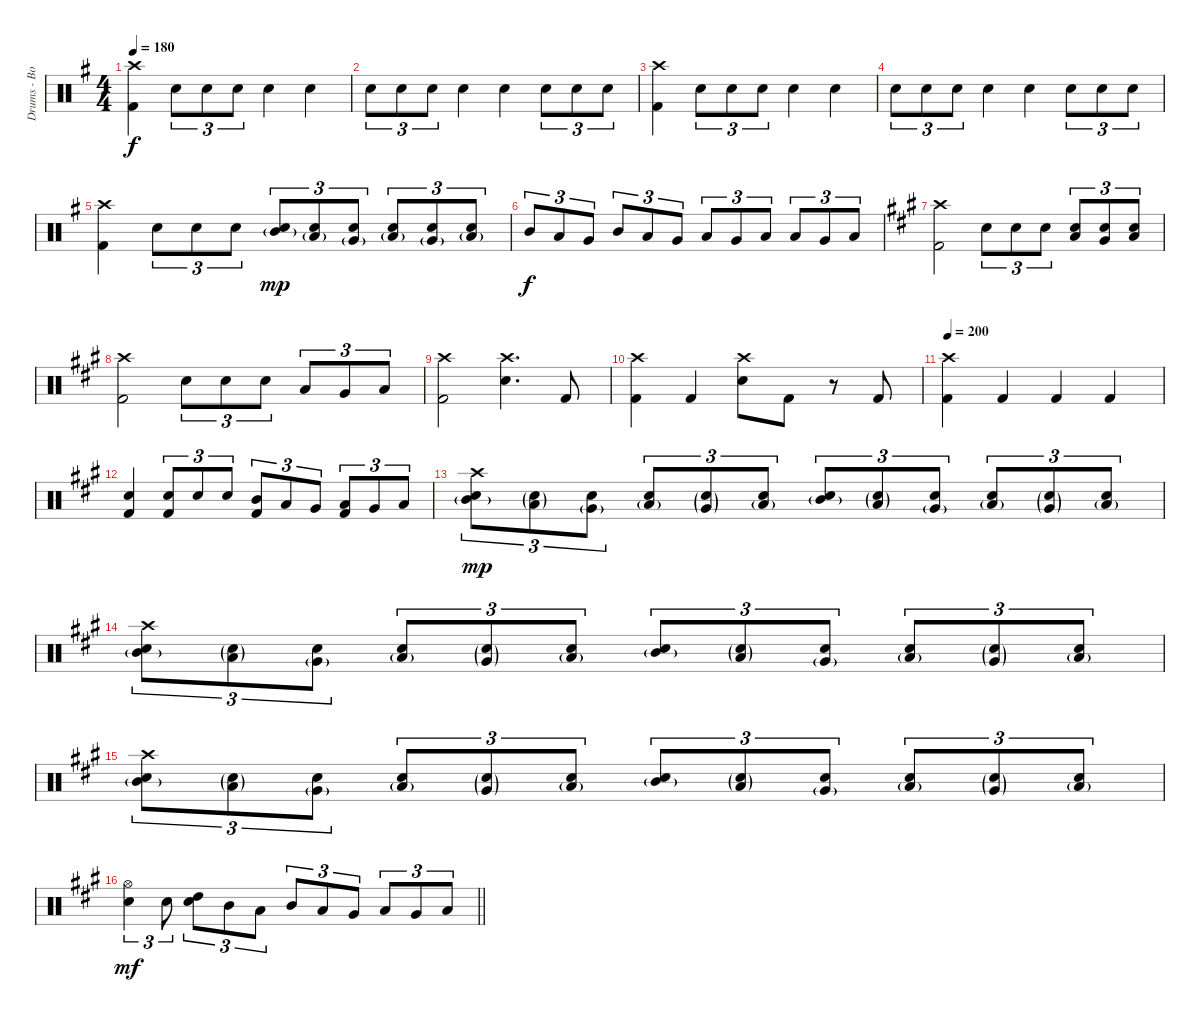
\track ("Drums - Bob Bryar" "Drums - Bo") {instrument percussion}
\staff {score}
\articulation defaults
\ts (4 4)
\tempo 180
\clef neutral
\ks eminor
("Kick (hit) 2" "Crash high (hit)").4{dy f} "Electric Snare (hit)".8{tu (3 2)} "Electric Snare (hit)".8{tu (3 2)} "Electric Snare (hit)".8{tu (3 2)} "Electric Snare (hit)".4 "Electric Snare (hit)".4 |
"Electric Snare (hit)".8{tu (3 2)} "Electric Snare (hit)".8{tu (3 2)} "Electric Snare (hit)".8{tu (3 2)} "Electric Snare (hit)".4 "Electric Snare (hit)".4 "Electric Snare (hit)".8{tu (3 2)} "Electric Snare (hit)".8{tu (3 2)} "Electric Snare (hit)".8{tu (3 2)} |
("Kick (hit) 2" "Crash high (hit)").4 "Electric Snare (hit)".8{tu (3 2)} "Electric Snare (hit)".8{tu (3 2)} "Electric Snare (hit)".8{tu (3 2)} "Electric Snare (hit)".4 "Electric Snare (hit)".4 |
"Electric Snare (hit)".8{tu (3 2)} "Electric Snare (hit)".8{tu (3 2)} "Electric Snare (hit)".8{tu (3 2)} "Electric Snare (hit)".4 "Electric Snare (hit)".4 "Electric Snare (hit)".8{tu (3 2)} "Electric Snare (hit)".8{tu (3 2)} "Electric Snare (hit)".8{tu (3 2)} |
("Kick (hit) 2" "Crash high (hit)").4 "Electric Snare (hit)".8{tu (3 2)} "Electric Snare (hit)".8{tu (3 2)} "Electric Snare (hit)".8{tu (3 2)} ("Electric Snare (hit)" "Mid Tom (hit)"{g}).8{tu (3 2) dy mp} ("Electric Snare (hit)" "Low Tom (hit)"{g}).8{tu (3 2)} ("Electric Snare (hit)" "Very Low Tom (hit)"{g}).8{tu (3 2)} ("Electric Snare (hit)" "Low Tom (hit)"{g}).8{tu (3 2)} ("Electric Snare (hit)" "Very Low Tom (hit)"{g}).8{tu (3 2)} ("Electric Snare (hit)" "Low Floor Tom (hit)"{g}).8{tu (3 2)} |
"Mid Tom (hit)".8{tu (3 2) dy f} "Low Tom (hit)".8{tu (3 2)} "Very Low Tom (hit)".8{tu (3 2)} "Mid Tom (hit)".8{tu (3 2)} "Low Tom (hit)".8{tu (3 2)} "Very Low Tom (hit)".8{tu (3 2)} "Low Tom (hit)".8{tu (3 2)} "Very Low Tom (hit)".8{tu (3 2)} "Low Floor Tom (hit)".8{tu (3 2)} "Low Tom (hit)".8{tu (3 2)} "Very Low Tom (hit)".8{tu (3 2)} "Low Floor Tom (hit)".8{tu (3 2)} |
\ks a
("Kick (hit) 2" "Crash high (hit)").2 "Electric Snare (hit)".8{tu (3 2)} "Electric Snare (hit)".8{tu (3 2)} "Electric Snare (hit)".8{tu (3 2)} ("Electric Snare (hit)" "Low Tom (hit)").8{tu (3 2)} ("Electric Snare (hit)" "Very Low Tom (hit)").8{tu (3 2)} ("Electric Snare (hit)" "Low Floor Tom (hit)").8{tu (3 2)} |
("Kick (hit) 2" "Crash high (hit)").2 "Electric Snare (hit)".8{tu (3 2)} "Electric Snare (hit)".8{tu (3 2)} "Electric Snare (hit)".8{tu (3 2)} "Low Tom (hit)".8{tu (3 2)} "Very Low Tom (hit)".8{tu (3 2)} "Low Floor Tom (hit)".8{tu (3 2)} |
("Kick (hit) 2" "Crash high (hit)").2 ("Electric Snare (hit)" "Crash high (hit)").4{d} "Kick (hit) 2".8 |
("Kick (hit) 2" "Crash high (hit)").4 "Kick (hit) 2".4 ("Electric Snare (hit)" "Crash high (hit)").8 "Kick (hit) 2".8 r.8 "Kick (hit) 2".8 |
\tempo 200
("Kick (hit) 2" "Crash high (hit)").4 "Kick (hit) 2".4 "Kick (hit) 2".4 "Kick (hit) 2".4 |
("Electric Snare (hit)" "Kick (hit) 2").4 ("Electric Snare (hit)" "Kick (hit) 2").8{tu (3 2)} "Electric Snare (hit)".8{tu (3 2)} "Electric Snare (hit)".8{tu (3 2)} ("Kick (hit) 2" "Mid Tom (hit)").8{tu (3 2)} "Low Tom (hit)".8{tu (3 2)} "Very Low Tom (hit)".8{tu (3 2)} ("Kick (hit) 2" "Low Tom (hit)").8{tu (3 2)} "Very Low Tom (hit)".8{tu (3 2)} "Low Floor Tom (hit)".8{tu (3 2)} |
("Electric Snare (hit)" "Crash high (hit)" "Mid Tom (hit)"{g}).8{tu (3 2) dy mp} ("Electric Snare (hit)"{g} "Low Tom (hit)"{g}).8{tu (3 2)} ("Electric Snare (hit)" "Very Low Tom (hit)"{g}).8{tu (3 2)} ("Electric Snare (hit)" "Low Tom (hit)"{g}).8{tu (3 2)} ("Electric Snare (hit)"{g} "Very Low Tom (hit)"{g}).8{tu (3 2)} ("Electric Snare (hit)" "Low Floor Tom (hit)"{g}).8{tu (3 2)} ("Electric Snare (hit)" "Mid Tom (hit)"{g}).8{tu (3 2)} ("Electric Snare (hit)"{g} "Low Tom (hit)"{g}).8{tu (3 2)} ("Electric Snare (hit)" "Very Low Tom (hit)"{g}).8{tu (3 2)} ("Electric Snare (hit)" "Low Tom (hit)"{g}).8{tu (3 2)} ("Electric Snare (hit)"{g} "Very Low Tom (hit)"{g}).8{tu (3 2)} ("Electric Snare (hit)" "Low Floor Tom (hit)"{g}).8{tu (3 2)} |
("Electric Snare (hit)" "Crash high (hit)" "Mid Tom (hit)"{g}).8{tu (3 2)} ("Electric Snare (hit)"{g} "Low Tom (hit)"{g}).8{tu (3 2)} ("Electric Snare (hit)" "Very Low Tom (hit)"{g}).8{tu (3 2)} ("Electric Snare (hit)" "Low Tom (hit)"{g}).8{tu (3 2)} ("Electric Snare (hit)"{g} "Very Low Tom (hit)"{g}).8{tu (3 2)} ("Electric Snare (hit)" "Low Floor Tom (hit)"{g}).8{tu (3 2)} ("Electric Snare (hit)" "Mid Tom (hit)"{g}).8{tu (3 2)} ("Electric Snare (hit)"{g} "Low Tom (hit)"{g}).8{tu (3 2)} ("Electric Snare (hit)" "Very Low Tom (hit)"{g}).8{tu (3 2)} ("Electric Snare (hit)" "Low Tom (hit)"{g}).8{tu (3 2)} ("Electric Snare (hit)"{g} "Very Low Tom (hit)"{g}).8{tu (3 2)} ("Electric Snare (hit)" "Low Floor Tom (hit)"{g}).8{tu (3 2)} |
("Electric Snare (hit)" "Crash high (hit)" "Mid Tom (hit)"{g}).8{tu (3 2)} ("Electric Snare (hit)"{g} "Low Tom (hit)"{g}).8{tu (3 2)} ("Electric Snare (hit)" "Very Low Tom (hit)"{g}).8{tu (3 2)} ("Electric Snare (hit)" "Low Tom (hit)"{g}).8{tu (3 2)} ("Electric Snare (hit)"{g} "Very Low Tom (hit)"{g}).8{tu (3 2)} ("Electric Snare (hit)" "Low Floor Tom (hit)"{g}).8{tu (3 2)} ("Electric Snare (hit)" "Mid Tom (hit)"{g}).8{tu (3 2)} ("Electric Snare (hit)"{g} "Low Tom (hit)"{g}).8{tu (3 2)} ("Electric Snare (hit)" "Very Low Tom (hit)"{g}).8{tu (3 2)} ("Electric Snare (hit)" "Low Tom (hit)"{g}).8{tu (3 2)} ("Electric Snare (hit)"{g} "Very Low Tom (hit)"{g}).8{tu (3 2)} ("Electric Snare (hit)" "Low Floor Tom (hit)"{g}).8{tu (3 2)} |
\barLineRight lightlight
("Electric Snare (hit)" "Hi-Hat (open)").4{tu (3 2) dy mf} "Electric Snare (hit)".8{tu (3 2)} ("Electric Snare (hit)" "High Tom (hit)").8{tu (3 2)} "Mid Tom (hit)".8{tu (3 2)} "Low Tom (hit)".8{tu (3 2)} "Mid Tom (hit)".8{tu (3 2)} "Low Tom (hit)".8{tu (3 2)} "Very Low Tom (hit)".8{tu (3 2)} "Low Tom (hit)".8{tu (3 2)} "Very Low Tom (hit)".8{tu (3 2)} "Low Floor Tom (hit)".8{tu (3 2)}
